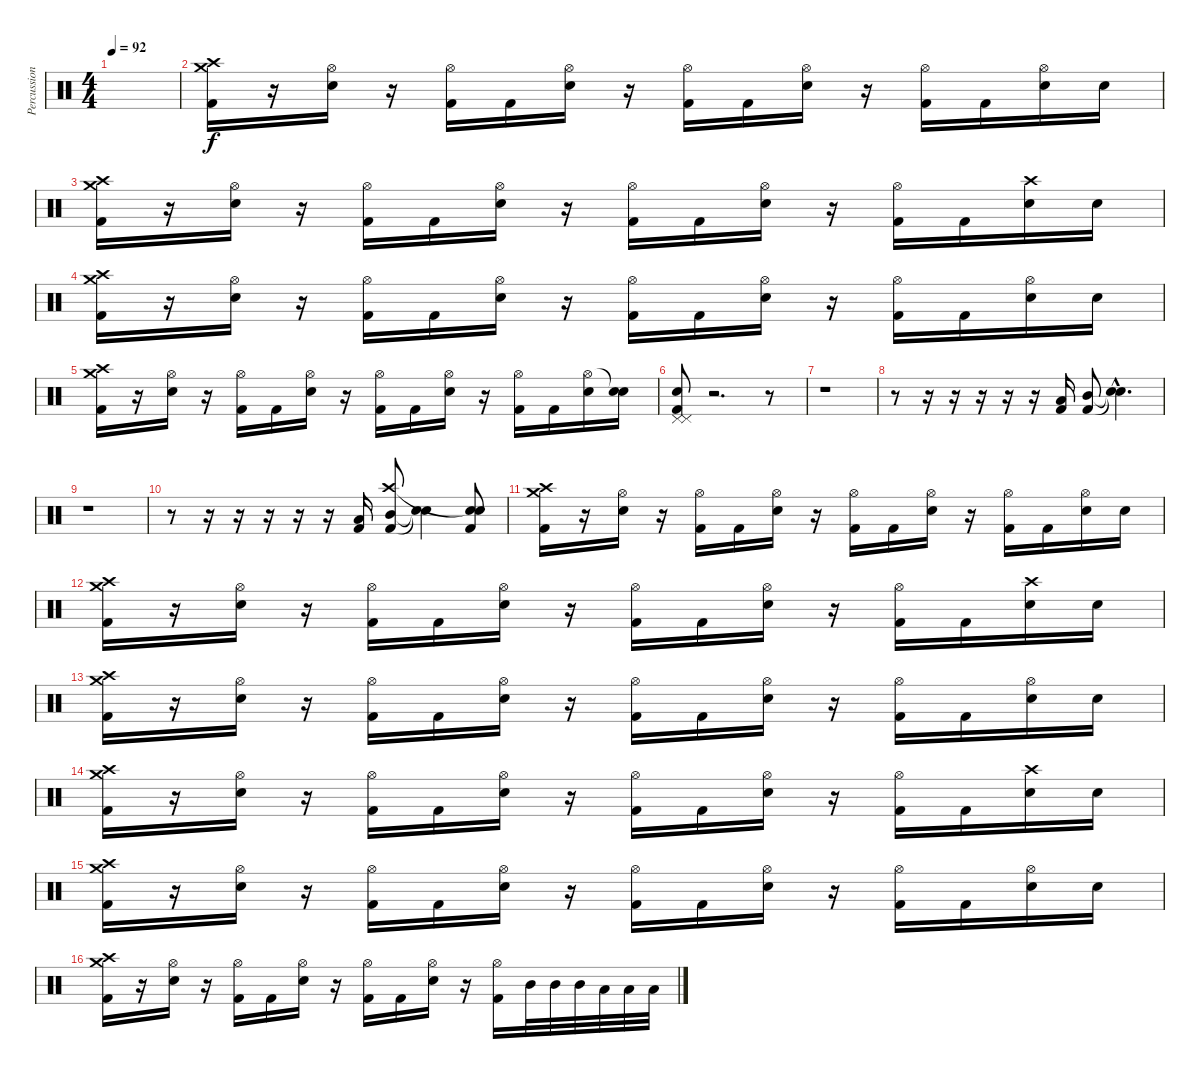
\track ("Percussion" "Percussion") {instrument percussion}
\staff {score}
\articulation defaults
\ts (4 4)
\tempo 92
\clef neutral
\ks c
|
("Kick (hit) 2" "Crash high (hit)" "Crash medium (hit)").16 r.16 ("Electric Snare (hit)" "Hi-Hat (open)").16 r.16 ("Kick (hit) 2" "Hi-Hat (open)").16 "Kick (hit) 2".16 ("Electric Snare (hit)" "Hi-Hat (open)").16 r.16 ("Kick (hit) 2" "Hi-Hat (open)").16 "Kick (hit) 2".16 ("Electric Snare (hit)" "Hi-Hat (open)").16 r.16 ("Kick (hit) 2" "Hi-Hat (open)").16 "Kick (hit) 2".16 ("Electric Snare (hit)" "Hi-Hat (open)").16 "Snare (hit)"{x}.16 |
("Kick (hit) 2" "Crash high (hit)" "Crash medium (hit)").16 r.16 ("Electric Snare (hit)" "Hi-Hat (open)").16 r.16 ("Kick (hit) 2" "Hi-Hat (open)").16 "Kick (hit) 2".16 ("Electric Snare (hit)" "Hi-Hat (open)").16 r.16 ("Kick (hit) 2" "Hi-Hat (open)").16 "Kick (hit) 2".16 ("Electric Snare (hit)" "Hi-Hat (open)").16 r.16 ("Kick (hit) 2" "Hi-Hat (open)").16 "Kick (hit) 2".16 ("Electric Snare (hit)" "Crash high (hit)").16 "Snare (hit)"{x}.16 |
("Kick (hit) 2" "Crash high (hit)" "Crash medium (hit)").16 r.16 ("Electric Snare (hit)" "Hi-Hat (open)").16 r.16 ("Kick (hit) 2" "Hi-Hat (open)").16 "Kick (hit) 2".16 ("Electric Snare (hit)" "Hi-Hat (open)").16 r.16 ("Kick (hit) 2" "Hi-Hat (open)").16 "Kick (hit) 2".16 ("Electric Snare (hit)" "Hi-Hat (open)").16 r.16 ("Kick (hit) 2" "Hi-Hat (open)").16 "Kick (hit) 2".16 ("Electric Snare (hit)" "Hi-Hat (open)").16 "Snare (hit)"{x}.16 |
("Kick (hit) 2" "Crash high (hit)" "Crash medium (hit)").16 r.16 ("Electric Snare (hit)" "Hi-Hat (open)").16 r.16 ("Kick (hit) 2" "Hi-Hat (open)").16 "Kick (hit) 2".16 ("Electric Snare (hit)" "Hi-Hat (open)").16 r.16 ("Kick (hit) 2" "Hi-Hat (open)").16 "Kick (hit) 2".16 ("Electric Snare (hit)" "Hi-Hat (open)").16 r.16 ("Kick (hit) 2" "Hi-Hat (open)").16 "Kick (hit) 2".16 ("Electric Snare (hit)" "Hi-Hat (open)").16 ("Snare (hit)"{x} "Snare (hit)"{t}).16 |
("Kick (hit) 2" "Pedal Hi-Hat (hit)" "Pedal Hi-Hat (hit)" "Electric Snare (hit)").8 r.2{d} r.8 |
r.1 |
r.8 r.16 r.16 r.16 r.16 r.16 ("Kick (hit) 2" "Low Tom (hit)").16 ("Kick (hit) 2" "Mid Tom (hit)").8 ("Snare (hit)"{hac t} "Snare (hit)"{hac t}).4{d} |
r.1 |
r.8 r.16 r.16 r.16 r.16 r.16 ("Kick (hit) 2" "Low Tom (hit)").16 ("Kick (hit) 2" "Mid Tom (hit)" "Crash high (hit)").8 ("Snare (hit)"{t} "Snare (hit)"{t}).4 ("Kick (hit) 2" "Electric Snare (hit)" "Snare (hit)"{t}).8 |
("Kick (hit) 2" "Crash high (hit)" "Crash medium (hit)").16 r.16 ("Electric Snare (hit)" "Hi-Hat (open)").16 r.16 ("Kick (hit) 2" "Hi-Hat (open)").16 "Kick (hit) 2".16 ("Electric Snare (hit)" "Hi-Hat (open)").16 r.16 ("Kick (hit) 2" "Hi-Hat (open)").16 "Kick (hit) 2".16 ("Electric Snare (hit)" "Hi-Hat (open)").16 r.16 ("Kick (hit) 2" "Hi-Hat (open)").16 "Kick (hit) 2".16 ("Electric Snare (hit)" "Hi-Hat (open)").16 "Snare (hit)"{x}.16 |
("Kick (hit) 2" "Crash high (hit)" "Crash medium (hit)").16 r.16 ("Electric Snare (hit)" "Hi-Hat (open)").16 r.16 ("Kick (hit) 2" "Hi-Hat (open)").16 "Kick (hit) 2".16 ("Electric Snare (hit)" "Hi-Hat (open)").16 r.16 ("Kick (hit) 2" "Hi-Hat (open)").16 "Kick (hit) 2".16 ("Electric Snare (hit)" "Hi-Hat (open)").16 r.16 ("Kick (hit) 2" "Hi-Hat (open)").16 "Kick (hit) 2".16 ("Electric Snare (hit)" "Crash high (hit)").16 "Snare (hit)"{x}.16 |
("Kick (hit) 2" "Crash high (hit)" "Crash medium (hit)").16 r.16 ("Electric Snare (hit)" "Hi-Hat (open)").16 r.16 ("Kick (hit) 2" "Hi-Hat (open)").16 "Kick (hit) 2".16 ("Electric Snare (hit)" "Hi-Hat (open)").16 r.16 ("Kick (hit) 2" "Hi-Hat (open)").16 "Kick (hit) 2".16 ("Electric Snare (hit)" "Hi-Hat (open)").16 r.16 ("Kick (hit) 2" "Hi-Hat (open)").16 "Kick (hit) 2".16 ("Electric Snare (hit)" "Hi-Hat (open)").16 "Snare (hit)"{x}.16 |
("Kick (hit) 2" "Crash high (hit)" "Crash medium (hit)").16 r.16 ("Electric Snare (hit)" "Hi-Hat (open)").16 r.16 ("Kick (hit) 2" "Hi-Hat (open)").16 "Kick (hit) 2".16 ("Electric Snare (hit)" "Hi-Hat (open)").16 r.16 ("Kick (hit) 2" "Hi-Hat (open)").16 "Kick (hit) 2".16 ("Electric Snare (hit)" "Hi-Hat (open)").16 r.16 ("Kick (hit) 2" "Hi-Hat (open)").16 "Kick (hit) 2".16 ("Electric Snare (hit)" "Crash high (hit)").16 "Snare (hit)"{x}.16 |
("Kick (hit) 2" "Crash high (hit)" "Crash medium (hit)").16 r.16 ("Electric Snare (hit)" "Hi-Hat (open)").16 r.16 ("Kick (hit) 2" "Hi-Hat (open)").16 "Kick (hit) 2".16 ("Electric Snare (hit)" "Hi-Hat (open)").16 r.16 ("Kick (hit) 2" "Hi-Hat (open)").16 "Kick (hit) 2".16 ("Electric Snare (hit)" "Hi-Hat (open)").16 r.16 ("Kick (hit) 2" "Hi-Hat (open)").16 "Kick (hit) 2".16 ("Electric Snare (hit)" "Hi-Hat (open)").16 "Snare (hit)"{x}.16 |
("Kick (hit) 2" "Crash high (hit)" "Crash medium (hit)").16 r.16 ("Electric Snare (hit)" "Hi-Hat (open)").16 r.16 ("Kick (hit) 2" "Hi-Hat (open)").16 "Kick (hit) 2".16 ("Electric Snare (hit)" "Hi-Hat (open)").16 r.16 ("Kick (hit) 2" "Hi-Hat (open)").16 "Kick (hit) 2".16 ("Electric Snare (hit)" "Hi-Hat (open)").16 r.16 ("Kick (hit) 2" "Hi-Hat (open)").16 "Mid Tom (hit)".32 "Mid Tom (hit)".32 "Mid Tom (hit)".32 "Low Tom (hit)".32 "Low Tom (hit)".32 "Low Tom (hit)".32
